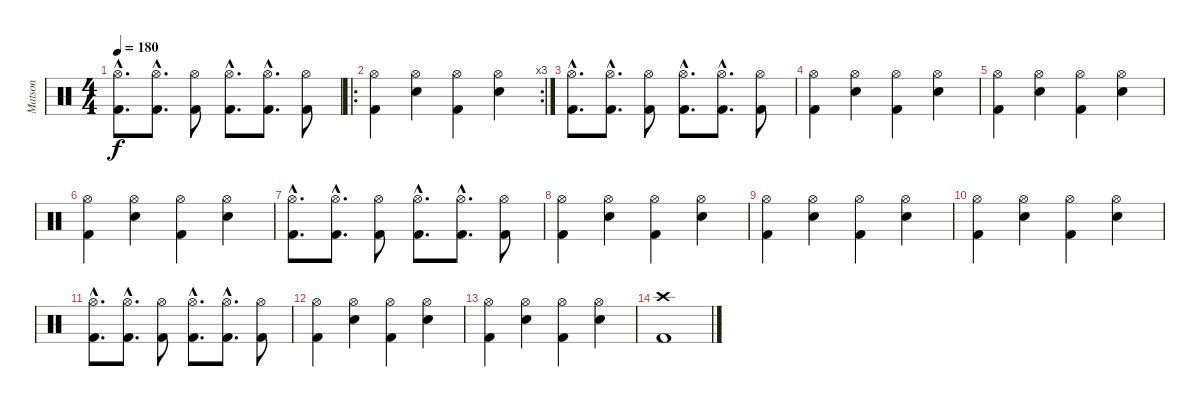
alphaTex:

\track ("Matson" "Matson") {instrument percussion}
\staff {score}
\articulation defaults
\ts (4 4)
\tempo 180
\clef neutral
\ks c
("Hi-Hat (open)"{hac} "Kick (hit) 2"{hac}).8{d dy f} ("Hi-Hat (open)"{hac} "Kick (hit) 2"{hac}).8{d} ("Hi-Hat (open)" "Kick (hit) 2").8 ("Hi-Hat (open)"{hac} "Kick (hit) 2"{hac}).8{d} ("Hi-Hat (open)"{hac} "Kick (hit) 2"{hac}).8{d} ("Hi-Hat (open)" "Kick (hit) 2").8 |
\ro
\rc 3
("Hi-Hat (open)" "Kick (hit) 2").4 ("Hi-Hat (open)" "Snare (hit) 2").4 ("Hi-Hat (open)" "Kick (hit) 2").4 ("Hi-Hat (open)" "Snare (hit) 2").4 |
("Hi-Hat (open)"{hac} "Kick (hit) 2"{hac}).8{d} ("Hi-Hat (open)"{hac} "Kick (hit) 2"{hac}).8{d} ("Hi-Hat (open)" "Kick (hit) 2").8 ("Hi-Hat (open)"{hac} "Kick (hit) 2"{hac}).8{d} ("Hi-Hat (open)"{hac} "Kick (hit) 2"{hac}).8{d} ("Hi-Hat (open)" "Kick (hit) 2").8 |
("Hi-Hat (open)" "Kick (hit) 2").4 ("Hi-Hat (open)" "Snare (hit) 2").4 ("Hi-Hat (open)" "Kick (hit) 2").4 ("Hi-Hat (open)" "Snare (hit) 2").4 |
("Hi-Hat (open)" "Kick (hit) 2").4 ("Hi-Hat (open)" "Snare (hit) 2").4 ("Hi-Hat (open)" "Kick (hit) 2").4 ("Hi-Hat (open)" "Snare (hit) 2").4 |
("Hi-Hat (open)" "Kick (hit) 2").4 ("Hi-Hat (open)" "Snare (hit) 2").4 ("Hi-Hat (open)" "Kick (hit) 2").4 ("Hi-Hat (open)" "Snare (hit) 2").4 |
("Hi-Hat (open)"{hac} "Kick (hit) 2"{hac}).8{d} ("Hi-Hat (open)"{hac} "Kick (hit) 2"{hac}).8{d} ("Hi-Hat (open)" "Kick (hit) 2").8 ("Hi-Hat (open)"{hac} "Kick (hit) 2"{hac}).8{d} ("Hi-Hat (open)"{hac} "Kick (hit) 2"{hac}).8{d} ("Hi-Hat (open)" "Kick (hit) 2").8 |
("Hi-Hat (open)" "Kick (hit) 2").4 ("Hi-Hat (open)" "Snare (hit) 2").4 ("Hi-Hat (open)" "Kick (hit) 2").4 ("Hi-Hat (open)" "Snare (hit) 2").4 |
("Hi-Hat (open)" "Kick (hit) 2").4 ("Hi-Hat (open)" "Snare (hit) 2").4 ("Hi-Hat (open)" "Kick (hit) 2").4 ("Hi-Hat (open)" "Snare (hit) 2").4 |
("Hi-Hat (open)" "Kick (hit) 2").4 ("Hi-Hat (open)" "Snare (hit) 2").4 ("Hi-Hat (open)" "Kick (hit) 2").4 ("Hi-Hat (open)" "Snare (hit) 2").4 |
("Hi-Hat (open)"{hac} "Kick (hit) 2"{hac}).8{d} ("Hi-Hat (open)"{hac} "Kick (hit) 2"{hac}).8{d} ("Hi-Hat (open)" "Kick (hit) 2").8 ("Hi-Hat (open)"{hac} "Kick (hit) 2"{hac}).8{d} ("Hi-Hat (open)"{hac} "Kick (hit) 2"{hac}).8{d} ("Hi-Hat (open)" "Kick (hit) 2").8 |
("Hi-Hat (open)" "Kick (hit) 2").4 ("Hi-Hat (open)" "Snare (hit) 2").4 ("Hi-Hat (open)" "Kick (hit) 2").4 ("Hi-Hat (open)" "Snare (hit) 2").4 |
("Hi-Hat (open)" "Kick (hit) 2").4 ("Hi-Hat (open)" "Snare (hit) 2").4 ("Hi-Hat (open)" "Kick (hit) 2").4 ("Hi-Hat (open)" "Snare (hit) 2").4 |
\section ("" "")
("Crash high (hit)" "Kick (hit) 2").1
